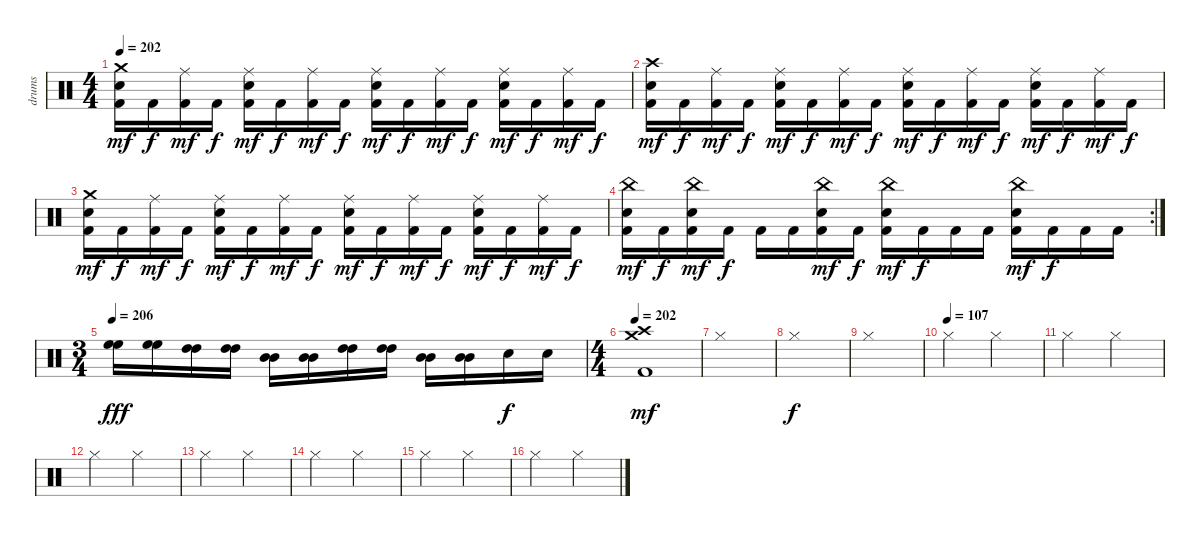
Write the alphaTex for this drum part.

\track ("drums" "drums") {instrument percussion}
\staff {score}
\articulation defaults
\ts (4 4)
\tempo 202
\clef neutral
\ks c
("Crash medium (hit)" "Snare (hit) 2" "Kick (hit) 2").16{dy mf} "Kick (hit) 2".16{dy f} ("Ride (middle)" "Kick (hit) 2").16{dy mf} "Kick (hit) 2".16{dy f} ("Ride (middle)" "Snare (hit) 2" "Kick (hit) 2").16{dy mf} "Kick (hit) 2".16{dy f} ("Ride (middle)" "Kick (hit) 2").16{dy mf} "Kick (hit) 2".16{dy f} ("Ride (middle)" "Snare (hit) 2" "Kick (hit) 2").16{dy mf} "Kick (hit) 2".16{dy f} ("Ride (middle)" "Kick (hit) 2").16{dy mf} "Kick (hit) 2".16{dy f} ("Ride (middle)" "Snare (hit) 2" "Kick (hit) 2").16{dy mf} "Kick (hit) 2".16{dy f} ("Ride (middle)" "Kick (hit) 2").16{dy mf} "Kick (hit) 2".16{dy f} |
("Crash high (hit)" "Snare (hit) 2" "Kick (hit) 2").16{dy mf} "Kick (hit) 2".16{dy f} ("Ride (middle)" "Kick (hit) 2").16{dy mf} "Kick (hit) 2".16{dy f} ("Ride (middle)" "Snare (hit) 2" "Kick (hit) 2").16{dy mf} "Kick (hit) 2".16{dy f} ("Ride (middle)" "Kick (hit) 2").16{dy mf} "Kick (hit) 2".16{dy f} ("Ride (middle)" "Snare (hit) 2" "Kick (hit) 2").16{dy mf} "Kick (hit) 2".16{dy f} ("Ride (middle)" "Kick (hit) 2").16{dy mf} "Kick (hit) 2".16{dy f} ("Ride (middle)" "Snare (hit) 2" "Kick (hit) 2").16{dy mf} "Kick (hit) 2".16{dy f} ("Ride (middle)" "Kick (hit) 2").16{dy mf} "Kick (hit) 2".16{dy f} |
("Crash medium (hit)" "Snare (hit) 2" "Kick (hit) 2").16{dy mf} "Kick (hit) 2".16{dy f} ("Ride (middle)" "Kick (hit) 2").16{dy mf} "Kick (hit) 2".16{dy f} ("Ride (middle)" "Snare (hit) 2" "Kick (hit) 2").16{dy mf} "Kick (hit) 2".16{dy f} ("Ride (middle)" "Kick (hit) 2").16{dy mf} "Kick (hit) 2".16{dy f} ("Ride (middle)" "Snare (hit) 2" "Kick (hit) 2").16{dy mf} "Kick (hit) 2".16{dy f} ("Ride (middle)" "Kick (hit) 2").16{dy mf} "Kick (hit) 2".16{dy f} ("Ride (middle)" "Snare (hit) 2" "Kick (hit) 2").16{dy mf} "Kick (hit) 2".16{dy f} ("Ride (middle)" "Kick (hit) 2").16{dy mf} "Kick (hit) 2".16{dy f} |
\rc 2
("China (hit)" "Snare (hit) 2" "Kick (hit) 2").16{dy mf} "Kick (hit) 2".16{dy f} ("China (hit)" "Snare (hit) 2" "Kick (hit) 2").16{dy mf} "Kick (hit) 2".16{dy f} "Kick (hit) 2".16 "Kick (hit) 2".16 ("China (hit)" "Snare (hit) 2" "Kick (hit) 2").16{dy mf} "Kick (hit) 2".16{dy f} ("China (hit)" "Snare (hit) 2" "Kick (hit) 2").16{dy mf} "Kick (hit) 2".16{dy f} "Kick (hit) 2".16 "Kick (hit) 2".16 ("China (hit)" "Snare (hit) 2" "Kick (hit) 2").16{dy mf} "Kick (hit) 2".16{dy f} "Kick (hit) 2".16 "Kick (hit) 2".16 |
\ts (3 4)
\tempo 206
("High Floor Tom (hit)" "High Floor Tom (hit)").16{dy fff} ("High Floor Tom (hit)" "High Floor Tom (hit)").16 ("High Tom (hit)" "High Tom (hit)").16 ("High Tom (hit)" "High Tom (hit)").16 ("Mid Tom (hit)" "Mid Tom (hit)").16 ("Mid Tom (hit)" "Mid Tom (hit)").16 ("High Tom (hit)" "High Tom (hit)").16 ("High Tom (hit)" "High Tom (hit)").16 ("Mid Tom (hit)" "Mid Tom (hit)").16 ("Mid Tom (hit)" "Mid Tom (hit)").16 "Snare (hit) 2".16{dy f} "Snare (hit) 2".16 |
\ts (4 4)
\tempo 202
("Crash high (hit)" "Crash medium (hit)" "Kick (hit) 2").1{dy mf} |
"Hi-Hat (closed)".1 |
"Hi-Hat (closed)".1{dy f} |
"Hi-Hat (closed)".1 |
\tempo (107)
"Hi-Hat (closed)".2 "Hi-Hat (closed)".2 |
"Hi-Hat (closed)".2 "Hi-Hat (closed)".2 |
"Hi-Hat (closed)".2 "Hi-Hat (closed)".2 |
"Hi-Hat (closed)".2 "Hi-Hat (closed)".2 |
"Hi-Hat (closed)".2 "Hi-Hat (closed)".2 |
"Hi-Hat (closed)".2 "Hi-Hat (closed)".2 |
"Hi-Hat (closed)".2 "Hi-Hat (closed)".2
